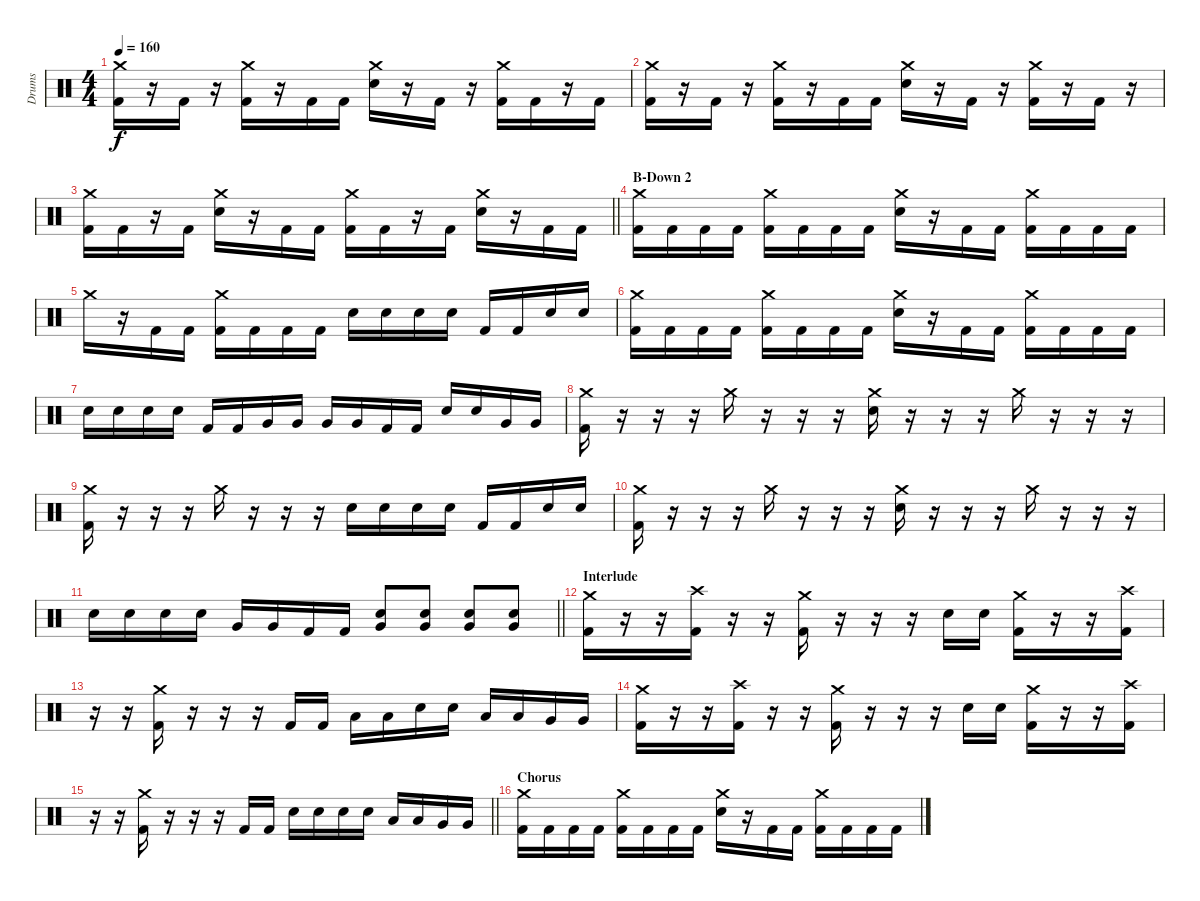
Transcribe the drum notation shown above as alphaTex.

\track ("Drums" "Drums") {instrument percussion}
\staff {score}
\articulation defaults
\ts (4 4)
\tempo 160
\clef neutral
\ks c
("Crash medium (hit)" "Kick (hit) 2").16{dy f} r.16 "Kick (hit) 2".16 r.16 ("Crash medium (hit)" "Kick (hit) 2").16 r.16 "Kick (hit) 2".16 "Kick (hit) 2".16 ("Crash medium (hit)" "Electric Snare (hit)").16 r.16 "Kick (hit) 2".16 r.16 ("Crash medium (hit)" "Kick (hit) 2").16 "Kick (hit) 2".16 r.16 "Kick (hit) 2".16 |
("Crash medium (hit)" "Kick (hit) 2").16 r.16 "Kick (hit) 2".16 r.16 ("Crash medium (hit)" "Kick (hit) 2").16 r.16 "Kick (hit) 2".16 "Kick (hit) 2".16 ("Crash medium (hit)" "Electric Snare (hit)").16 r.16 "Kick (hit) 2".16 r.16 ("Crash medium (hit)" "Kick (hit) 2").16 r.16 "Kick (hit) 2".16 r.16 |
\barLineRight lightlight
("Crash medium (hit)" "Kick (hit) 2").16 "Kick (hit) 2".16 r.16 "Kick (hit) 2".16 ("Crash medium (hit)" "Electric Snare (hit)").16 r.16 "Kick (hit) 2".16 "Kick (hit) 2".16 ("Crash medium (hit)" "Kick (hit) 2").16 "Kick (hit) 2".16 r.16 "Kick (hit) 2".16 ("Crash medium (hit)" "Electric Snare (hit)").16 r.16 "Kick (hit) 2".16 "Kick (hit) 2".16 |
\section ("" "B-Down 2")
("Crash medium (hit)" "Kick (hit) 2").16 "Kick (hit) 2".16 "Kick (hit) 2".16 "Kick (hit) 2".16 ("Crash medium (hit)" "Kick (hit) 2").16 "Kick (hit) 2".16 "Kick (hit) 2".16 "Kick (hit) 2".16 ("Crash medium (hit)" "Electric Snare (hit)").16 r.16 "Kick (hit) 2".16 "Kick (hit) 2".16 ("Crash medium (hit)" "Kick (hit) 2").16 "Kick (hit) 2".16 "Kick (hit) 2".16 "Kick (hit) 2".16 |
"Crash medium (hit)".16 r.16 "Kick (hit) 2".16 "Kick (hit) 2".16 ("Crash medium (hit)" "Kick (hit) 2").16 "Kick (hit) 2".16 "Kick (hit) 2".16 "Kick (hit) 2".16 "Electric Snare (hit)".16 "Electric Snare (hit)".16 "Electric Snare (hit)".16 "Electric Snare (hit)".16 "Kick (hit) 2".16 "Kick (hit) 2".16 "Electric Snare (hit)".16 "Electric Snare (hit)".16 |
("Crash medium (hit)" "Kick (hit) 2").16 "Kick (hit) 2".16 "Kick (hit) 2".16 "Kick (hit) 2".16 ("Crash medium (hit)" "Kick (hit) 2").16 "Kick (hit) 2".16 "Kick (hit) 2".16 "Kick (hit) 2".16 ("Crash medium (hit)" "Electric Snare (hit)").16 r.16 "Kick (hit) 2".16 "Kick (hit) 2".16 ("Crash medium (hit)" "Kick (hit) 2").16 "Kick (hit) 2".16 "Kick (hit) 2".16 "Kick (hit) 2".16 |
"Electric Snare (hit)".16 "Electric Snare (hit)".16 "Electric Snare (hit)".16 "Electric Snare (hit)".16 "Kick (hit) 2".16 "Kick (hit) 2".16 "Very Low Tom (hit)".16 "Very Low Tom (hit)".16 "Very Low Tom (hit)".16 "Very Low Tom (hit)".16 "Kick (hit) 2".16 "Kick (hit) 2".16 "Electric Snare (hit)".16 "Electric Snare (hit)".16 "Very Low Tom (hit)".16 "Very Low Tom (hit)".16 |
("Crash medium (hit)" "Kick (hit) 2").16 r.16 r.16 r.16 "Crash medium (hit)".16 r.16 r.16 r.16 ("Crash medium (hit)" "Electric Snare (hit)").16 r.16 r.16 r.16 "Crash medium (hit)".16 r.16 r.16 r.16 |
("Crash medium (hit)" "Kick (hit) 2").16 r.16 r.16 r.16 "Crash medium (hit)".16 r.16 r.16 r.16 "Electric Snare (hit)".16 "Electric Snare (hit)".16 "Electric Snare (hit)".16 "Electric Snare (hit)".16 "Kick (hit) 2".16 "Kick (hit) 2".16 "Electric Snare (hit)".16 "Electric Snare (hit)".16 |
("Crash medium (hit)" "Kick (hit) 2").16 r.16 r.16 r.16 "Crash medium (hit)".16 r.16 r.16 r.16 ("Crash medium (hit)" "Electric Snare (hit)").16 r.16 r.16 r.16 "Crash medium (hit)".16 r.16 r.16 r.16 |
\barLineRight lightlight "Electric Snare (hit)".16 "Electric Snare (hit)".16 "Electric Snare (hit)".16 "Electric Snare (hit)".16 "Very Low Tom (hit)".16 "Very Low Tom (hit)".16 "Kick (hit) 2".16 "Kick (hit) 2".16
("Very Low Tom (hit)" "Electric Snare (hit)").8 ("Very Low Tom (hit)" "Electric Snare (hit)").8 ("Very Low Tom (hit)" "Electric Snare (hit)").8 ("Very Low Tom (hit)" "Electric Snare (hit)").8 |
\section ("" "Interlude")
("Crash medium (hit)" "Kick (hit) 2").16 r.16 r.16 ("Crash high (hit)" "Kick (hit) 2").16 r.16 r.16 ("Crash medium (hit)" "Kick (hit) 2").16 r.16 r.16 r.16 "Electric Snare (hit)".16 "Electric Snare (hit)".16 ("Crash medium (hit)" "Kick (hit) 2").16 r.16 r.16 ("Crash high (hit)" "Kick (hit) 2").16 |
r.16 r.16 ("Crash medium (hit)" "Kick (hit) 2").16 r.16 r.16 r.16 "Kick (hit) 2".16 "Kick (hit) 2".16 "Low Tom (hit)".16 "Low Tom (hit)".16 "Electric Snare (hit)".16 "Electric Snare (hit)".16 "Low Tom (hit)".16 "Low Tom (hit)".16 "Very Low Tom (hit)".16 "Very Low Tom (hit)".16 |
("Crash medium (hit)" "Kick (hit) 2").16 r.16 r.16 ("Crash high (hit)" "Kick (hit) 2").16 r.16 r.16 ("Crash medium (hit)" "Kick (hit) 2").16 r.16 r.16 r.16 "Electric Snare (hit)".16 "Electric Snare (hit)".16 ("Crash medium (hit)" "Kick (hit) 2").16 r.16 r.16 ("Crash high (hit)" "Kick (hit) 2").16 |
\barLineRight lightlight
r.16 r.16 ("Crash medium (hit)" "Kick (hit) 2").16 r.16 r.16 r.16 "Kick (hit) 2".16 "Kick (hit) 2".16 "Electric Snare (hit)".16 "Electric Snare (hit)".16 "Electric Snare (hit)".16 "Electric Snare (hit)".16 "Low Tom (hit)".16 "Low Tom (hit)".16 "Very Low Tom (hit)".16 "Very Low Tom (hit)".16 |
\section ("" "Chorus")
("Crash medium (hit)" "Kick (hit) 2").16 "Kick (hit) 2".16 "Kick (hit) 2".16 "Kick (hit) 2".16 ("Crash medium (hit)" "Kick (hit) 2").16 "Kick (hit) 2".16 "Kick (hit) 2".16 "Kick (hit) 2".16 ("Crash medium (hit)" "Electric Snare (hit)").16 r.16 "Kick (hit) 2".16 "Kick (hit) 2".16 ("Crash medium (hit)" "Kick (hit) 2").16 "Kick (hit) 2".16 "Kick (hit) 2".16 "Kick (hit) 2".16
